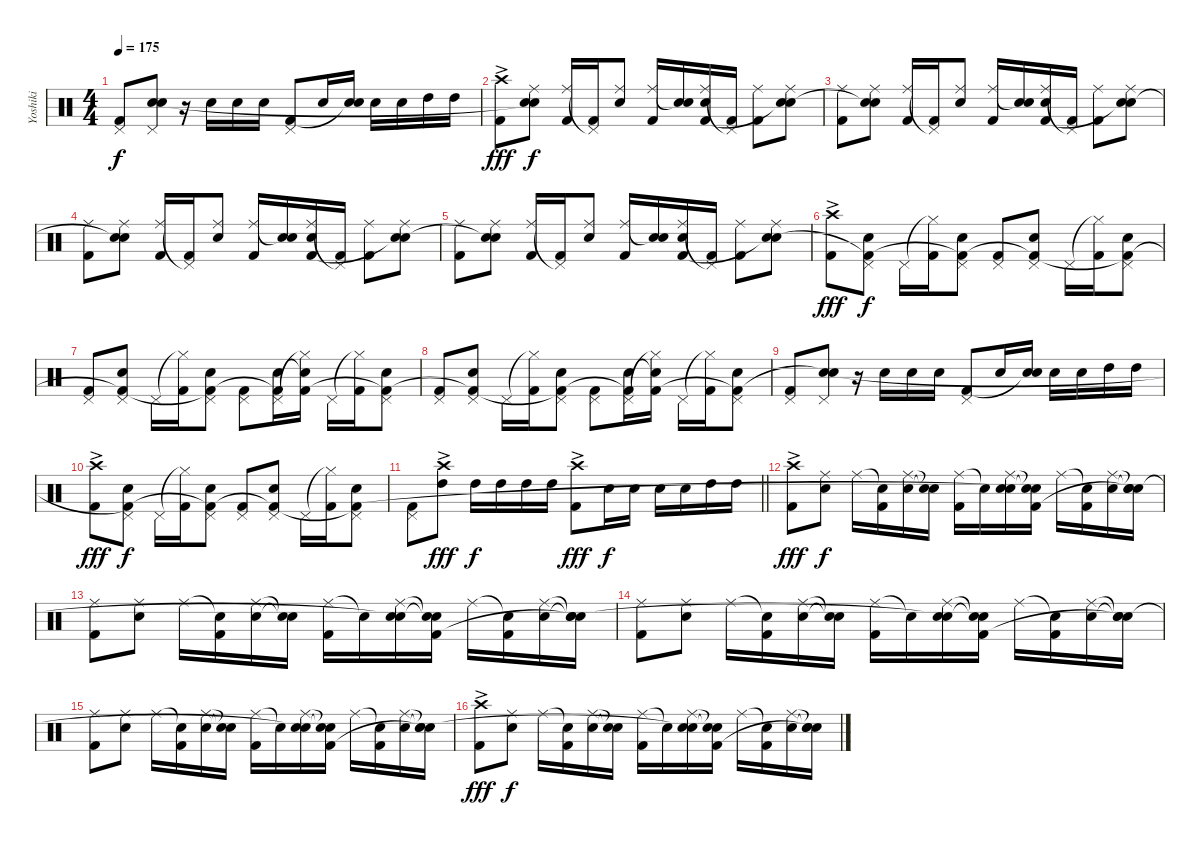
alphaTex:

\track ("Yoshiki" "Yoshiki") {instrument percussion}
\staff {score}
\articulation defaults
\ts (4 4)
\tempo 175
\clef neutral
\ks c
("Pedal Hi-Hat (hit)" "Kick (hit) 2").8{dy f} ("Pedal Hi-Hat (hit)" "Snare (hit) 2" "Snare (hit)"{t}).8 r.16 "Snare (hit) 2".16 "Snare (hit) 2".16 "Snare (hit) 2".16 ("Pedal Hi-Hat (hit)" "Kick (hit) 2").8 "Snare (hit) 2".16 ("Snare (hit) 2" "Snare (hit)"{t}).16 "Snare (hit) 2".16 "Snare (hit) 2".16 "High Tom (hit)".16 "High Tom (hit)".16 |
("Crash high (hit)"{ac} "Kick (hit) 2"{ac}).8{dy fff} ("Ride (middle)" "Snare (hit) 2" "Snare (hit)"{t}).8{dy f} ("Ride (middle)" "Kick (hit) 2").16 ("Pedal Hi-Hat (hit)"{t} "Kick (hit) 2").16 ("Ride (middle)" "Snare (hit) 2").8 ("Ride (middle)" "Kick (hit) 2").16 ("Snare (hit)"{t} "Snare (hit)").16 ("Ride (middle)" "Snare (hit) 2" "Kick (hit) 2").16 ("Pedal Hi-Hat (hit)"{t} "Kick (hit) 2").16 ("Ride (middle)" "Kick (hit) 2").8 ("Ride (middle)" "Snare (hit) 2" "Snare (hit)"{t}).8 |
("Ride (middle)" "Kick (hit) 2").8 ("Ride (middle)" "Snare (hit) 2" "Snare (hit)"{t}).8 ("Ride (middle)" "Kick (hit) 2").16 ("Pedal Hi-Hat (hit)"{t} "Kick (hit) 2").16 ("Ride (middle)" "Snare (hit) 2").8 ("Ride (middle)" "Kick (hit) 2").16 ("Snare (hit)"{t} "Snare (hit)").16 ("Ride (middle)" "Snare (hit) 2" "Kick (hit) 2").16 ("Pedal Hi-Hat (hit)"{t} "Kick (hit) 2").16 ("Ride (middle)" "Kick (hit) 2").8 ("Ride (middle)" "Snare (hit) 2" "Snare (hit)"{t}).8 |
("Ride (middle)" "Kick (hit) 2").8 ("Ride (middle)" "Snare (hit) 2" "Snare (hit)"{t}).8 ("Ride (middle)" "Kick (hit) 2").16 ("Pedal Hi-Hat (hit)"{t} "Kick (hit) 2").16 ("Ride (middle)" "Snare (hit) 2").8 ("Ride (middle)" "Kick (hit) 2").16 ("Snare (hit)"{t} "Snare (hit)").16 ("Ride (middle)" "Snare (hit) 2" "Kick (hit) 2").16 ("Pedal Hi-Hat (hit)"{t} "Kick (hit) 2").16 ("Ride (middle)" "Kick (hit) 2").8 ("Ride (middle)" "Snare (hit) 2" "Snare (hit)"{t}).8 |
("Ride (middle)" "Kick (hit) 2").8 ("Ride (middle)" "Snare (hit) 2" "Snare (hit)"{t}).8 ("Ride (middle)" "Kick (hit) 2").16 ("Pedal Hi-Hat (hit)"{t} "Kick (hit) 2").16 ("Ride (middle)" "Snare (hit) 2").8 ("Ride (middle)" "Kick (hit) 2").16 ("Snare (hit)"{t} "Snare (hit)").16 ("Ride (middle)" "Snare (hit) 2" "Kick (hit) 2").16 ("Pedal Hi-Hat (hit)"{t} "Kick (hit) 2").16 ("Ride (middle)" "Kick (hit) 2").8 ("Ride (middle)" "Snare (hit) 2" "Snare (hit)"{t}).8 |
("Crash high (hit)"{ac} "Kick (hit) 2").8{dy fff} ("Pedal Hi-Hat (hit)" "Snare (hit) 2" "Kick (hit) 2"{t}).8{dy f} "Pedal Hi-Hat (hit)".16 ("Hi-Hat (closed)"{t} "Kick (hit) 2").16 ("Pedal Hi-Hat (hit)" "Snare (hit) 2" "Kick (hit) 2"{t}).8 ("Pedal Hi-Hat (hit)" "Kick (hit) 2").8 ("Pedal Hi-Hat (hit)" "Snare (hit) 2" "Kick (hit) 2"{t}).8 "Pedal Hi-Hat (hit)".16 ("Hi-Hat (closed)"{t} "Kick (hit) 2").16 ("Pedal Hi-Hat (hit)" "Snare (hit) 2" "Kick (hit) 2"{t}).8 |
("Pedal Hi-Hat (hit)" "Kick (hit) 2").8 ("Pedal Hi-Hat (hit)" "Snare (hit) 2" "Kick (hit) 2"{t}).8 "Pedal Hi-Hat (hit)".16 ("Hi-Hat (closed)"{t} "Kick (hit) 2").16 ("Pedal Hi-Hat (hit)" "Snare (hit) 2" "Kick (hit) 2"{t}).8 ("Pedal Hi-Hat (hit)" "Kick (hit) 2").8 ("Pedal Hi-Hat (hit)" "Snare (hit) 2" "Kick (hit) 2"{t}).16 ("Hi-Hat (closed)"{t} "Snare (hit) 2"{t} "Kick (hit) 2").16 "Pedal Hi-Hat (hit)".16 ("Hi-Hat (closed)"{t} "Kick (hit) 2").16 ("Pedal Hi-Hat (hit)" "Snare (hit) 2" "Kick (hit) 2"{t}).8 |
("Pedal Hi-Hat (hit)" "Kick (hit) 2").8 ("Pedal Hi-Hat (hit)" "Snare (hit) 2" "Kick (hit) 2"{t}).8 "Pedal Hi-Hat (hit)".16 ("Hi-Hat (closed)"{t} "Kick (hit) 2").16 ("Pedal Hi-Hat (hit)" "Snare (hit) 2" "Kick (hit) 2"{t}).8 ("Pedal Hi-Hat (hit)" "Kick (hit) 2").8 ("Pedal Hi-Hat (hit)" "Snare (hit) 2" "Kick (hit) 2"{t}).16 ("Hi-Hat (closed)"{t} "Snare (hit) 2"{t} "Kick (hit) 2").16 "Pedal Hi-Hat (hit)".16 ("Hi-Hat (closed)"{t} "Kick (hit) 2").16 ("Pedal Hi-Hat (hit)" "Snare (hit) 2" "Kick (hit) 2"{t}).8 |
("Pedal Hi-Hat (hit)" "Kick (hit) 2").8 ("Pedal Hi-Hat (hit)" "Snare (hit) 2" "Snare (hit)"{t}).8 r.16 "Snare (hit) 2".16 "Snare (hit) 2".16 "Snare (hit) 2".16 ("Pedal Hi-Hat (hit)" "Kick (hit) 2").8 "Snare (hit) 2".16 ("Snare (hit) 2" "Snare (hit)"{t}).16 "Snare (hit) 2".16 "Snare (hit) 2".16 "High Tom (hit)".16 "High Tom (hit)".16 |
("Crash high (hit)"{ac} "Kick (hit) 2").8{dy fff} ("Pedal Hi-Hat (hit)" "Snare (hit) 2" "Kick (hit) 2"{t}).8{dy f} "Pedal Hi-Hat (hit)".16 ("Hi-Hat (closed)"{t} "Kick (hit) 2").16 ("Pedal Hi-Hat (hit)" "Snare (hit) 2" "Kick (hit) 2"{t}).8 ("Pedal Hi-Hat (hit)" "Kick (hit) 2").8 ("Pedal Hi-Hat (hit)" "Snare (hit) 2" "Kick (hit) 2"{t}).8 "Pedal Hi-Hat (hit)".16 ("Hi-Hat (closed)"{t} "Kick (hit) 2").16 ("Pedal Hi-Hat (hit)" "Snare (hit) 2" "Kick (hit) 2"{t}).8 |
\barLineRight lightlight
("Pedal Hi-Hat (hit)" "Kick (hit) 2").8 ("Crash high (hit)"{ac} "High Tom (hit)").8{dy fff} "High Tom (hit)".16{dy f} "High Tom (hit)".16 "High Tom (hit)".16 "High Tom (hit)".16 ("Crash high (hit)"{ac} "Kick (hit) 2").8{dy fff} "Snare (hit) 2".16{dy f} "Snare (hit) 2".16 "Snare (hit) 2".16 "Snare (hit) 2".16 "High Tom (hit)".16 "High Tom (hit)".16 |
("Crash high (hit)"{ac} "Kick (hit) 2"{ac}).8{dy fff} ("Ride (middle)" "Snare (hit) 2").8{dy f} "Ride (middle)".16 ("Snare (hit)"{t} "Kick (hit) 2").16 ("Ride (middle)" "Snare (hit) 2").16 ("Snare (hit)"{t} "Snare (hit)"{t}).16 ("Ride (middle)" "Kick (hit) 2").16 "Snare (hit)"{t}.16 ("Ride (middle)" "Snare (hit) 2" "Snare (hit)"{t}).16 ("Snare (hit)"{t} "Snare (hit)"{t} "Kick (hit) 2").16 "Ride (middle)".16 ("Snare (hit)"{t} "Kick (hit) 2").16 ("Ride (middle)" "Snare (hit) 2").16 ("Snare (hit)"{t} "Snare (hit)"{t} "Snare (hit)"{t}).16 |
("Ride (middle)" "Kick (hit) 2").8 ("Ride (middle)" "Snare (hit) 2").8 "Ride (middle)".16 ("Snare (hit)"{t} "Kick (hit) 2").16 ("Ride (middle)" "Snare (hit) 2").16 ("Snare (hit)"{t} "Snare (hit)"{t}).16 ("Ride (middle)" "Kick (hit) 2").16 "Snare (hit)"{t}.16 ("Ride (middle)" "Snare (hit) 2" "Snare (hit)"{t}).16 ("Snare (hit)"{t} "Snare (hit)"{t} "Kick (hit) 2").16 "Ride (middle)".16 ("Snare (hit)"{t} "Kick (hit) 2").16 ("Ride (middle)" "Snare (hit) 2").16 ("Snare (hit)"{t} "Snare (hit)"{t} "Snare (hit)"{t}).16 |
("Ride (middle)" "Kick (hit) 2").8 ("Ride (middle)" "Snare (hit) 2").8 "Ride (middle)".16 ("Snare (hit)"{t} "Kick (hit) 2").16 ("Ride (middle)" "Snare (hit) 2").16 ("Snare (hit)"{t} "Snare (hit)"{t}).16 ("Ride (middle)" "Kick (hit) 2").16 "Snare (hit)"{t}.16 ("Ride (middle)" "Snare (hit) 2" "Snare (hit)"{t}).16 ("Snare (hit)"{t} "Snare (hit)"{t} "Kick (hit) 2").16 "Ride (middle)".16 ("Snare (hit)"{t} "Kick (hit) 2").16 ("Ride (middle)" "Snare (hit) 2").16 ("Snare (hit)"{t} "Snare (hit)"{t} "Snare (hit)"{t}).16 |
("Ride (middle)" "Kick (hit) 2").8 ("Ride (middle)" "Snare (hit) 2").8 "Ride (middle)".16 ("Snare (hit)"{t} "Kick (hit) 2").16 ("Ride (middle)" "Snare (hit) 2").16 ("Snare (hit)"{t} "Snare (hit)"{t}).16 ("Ride (middle)" "Kick (hit) 2").16 "Snare (hit)"{t}.16 ("Ride (middle)" "Snare (hit) 2" "Snare (hit)"{t}).16 ("Snare (hit)"{t} "Snare (hit)"{t} "Kick (hit) 2").16 "Ride (middle)".16 ("Snare (hit)"{t} "Kick (hit) 2").16 ("Ride (middle)" "Snare (hit) 2").16 ("Snare (hit)"{t} "Snare (hit)"{t} "Snare (hit)"{t}).16 |
("Crash high (hit)"{ac} "Kick (hit) 2"{ac}).8{dy fff} ("Ride (middle)" "Snare (hit) 2").8{dy f} "Ride (middle)".16 ("Snare (hit)"{t} "Kick (hit) 2").16 ("Ride (middle)" "Snare (hit) 2").16 ("Snare (hit)"{t} "Snare (hit)"{t}).16 ("Ride (middle)" "Kick (hit) 2").16 "Snare (hit)"{t}.16 ("Ride (middle)" "Snare (hit) 2" "Snare (hit)"{t}).16 ("Snare (hit)"{t} "Snare (hit)"{t} "Kick (hit) 2").16 "Ride (middle)".16 ("Snare (hit)"{t} "Kick (hit) 2").16 ("Ride (middle)" "Snare (hit) 2").16 ("Snare (hit)"{t} "Snare (hit)"{t} "Snare (hit)"{t}).16
